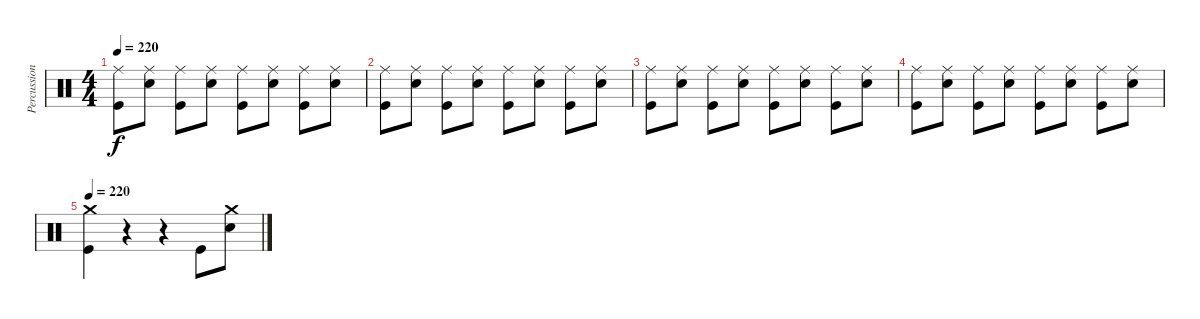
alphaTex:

\track ("Percussion" "Percussion") {instrument percussion}
\staff {score}
\articulation defaults
\ts (4 4)
\tempo 233
\tempo 220
\clef neutral
\ks c
("Ride (middle)" "Kick (hit)").8{dy f} ("Ride (middle)" "Electric Snare (hit)").8 ("Ride (middle)" "Kick (hit)").8 ("Ride (middle)" "Electric Snare (hit)").8 ("Ride (middle)" "Kick (hit)").8 ("Ride (middle)" "Electric Snare (hit)").8 ("Ride (middle)" "Kick (hit)").8 ("Ride (middle)" "Electric Snare (hit)").8 |
("Ride (middle)" "Kick (hit)").8 ("Ride (middle)" "Electric Snare (hit)").8 ("Ride (middle)" "Kick (hit)").8 ("Ride (middle)" "Electric Snare (hit)").8 ("Ride (middle)" "Kick (hit)").8 ("Ride (middle)" "Electric Snare (hit)").8 ("Ride (middle)" "Kick (hit)").8 ("Ride (middle)" "Electric Snare (hit)").8 |
("Ride (middle)" "Kick (hit)").8 ("Ride (middle)" "Electric Snare (hit)").8 ("Ride (middle)" "Kick (hit)").8 ("Ride (middle)" "Electric Snare (hit)").8 ("Ride (middle)" "Kick (hit)").8 ("Ride (middle)" "Electric Snare (hit)").8 ("Ride (middle)" "Kick (hit)").8 ("Ride (middle)" "Electric Snare (hit)").8 |
("Ride (middle)" "Kick (hit)").8 ("Ride (middle)" "Electric Snare (hit)").8 ("Ride (middle)" "Kick (hit)").8 ("Ride (middle)" "Electric Snare (hit)").8 ("Ride (middle)" "Kick (hit)").8 ("Ride (middle)" "Electric Snare (hit)").8 ("Ride (middle)" "Kick (hit)").8 ("Ride (middle)" "Electric Snare (hit)").8 |
\tempo 220
("Crash medium (hit)" "Kick (hit)").4 r.4 r.4 "Kick (hit)".8 ("Crash medium (hit)" "Electric Snare (hit)").8
